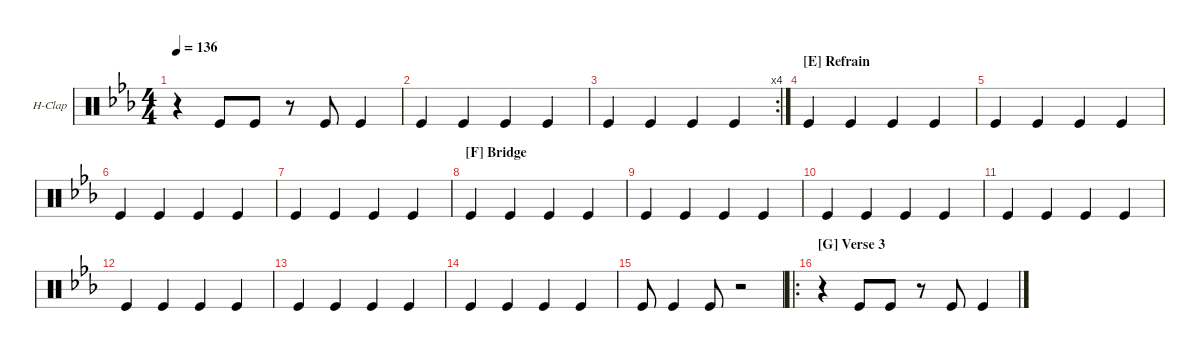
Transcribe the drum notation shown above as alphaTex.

\defaultSystemsLayout 4
\hideDynamics
\bracketExtendMode groupsimilarinstruments
\firstSystemTrackNameOrientation horizontal
\otherSystemsTrackNameOrientation horizontal
\track ("Hand Clap" "H-Clap") {multiBarRest instrument percussion}
\staff {score}
\articulation defaults
\ts (4 4)
\tempo 136
\clef neutral
\ks eb
r.4{dy mf} "Kick (hit)".8 "Kick (hit)".8 r.8 "Kick (hit)".8 "Kick (hit)".4 |
"Kick (hit)".4 "Kick (hit)".4 "Kick (hit)".4 "Kick (hit)".4 |
\rc 4 "Kick (hit)".4 "Kick (hit)".4 "Kick (hit)".4 "Kick (hit)".4
|
\section ("E" "Refrain")
"Kick (hit)".4 "Kick (hit)".4 "Kick (hit)".4 "Kick (hit)".4 |
"Kick (hit)".4 "Kick (hit)".4 "Kick (hit)".4 "Kick (hit)".4 |
"Kick (hit)".4 "Kick (hit)".4 "Kick (hit)".4 "Kick (hit)".4 |
"Kick (hit)".4 "Kick (hit)".4 "Kick (hit)".4 "Kick (hit)".4 |
\section ("F" "Bridge")
"Kick (hit)".4 "Kick (hit)".4 "Kick (hit)".4 "Kick (hit)".4 |
"Kick (hit)".4 "Kick (hit)".4 "Kick (hit)".4 "Kick (hit)".4 |
"Kick (hit)".4 "Kick (hit)".4 "Kick (hit)".4 "Kick (hit)".4 |
"Kick (hit)".4 "Kick (hit)".4 "Kick (hit)".4 "Kick (hit)".4 |
"Kick (hit)".4 "Kick (hit)".4 "Kick (hit)".4 "Kick (hit)".4 |
"Kick (hit)".4 "Kick (hit)".4 "Kick (hit)".4 "Kick (hit)".4 |
"Kick (hit)".4 "Kick (hit)".4 "Kick (hit)".4 "Kick (hit)".4 |
"Kick (hit)".8 "Kick (hit)".4 "Kick (hit)".8 r.2 |
\ro
\section ("G" "Verse 3")
r.4 "Kick (hit)".8 "Kick (hit)".8 r.8 "Kick (hit)".8 "Kick (hit)".4
